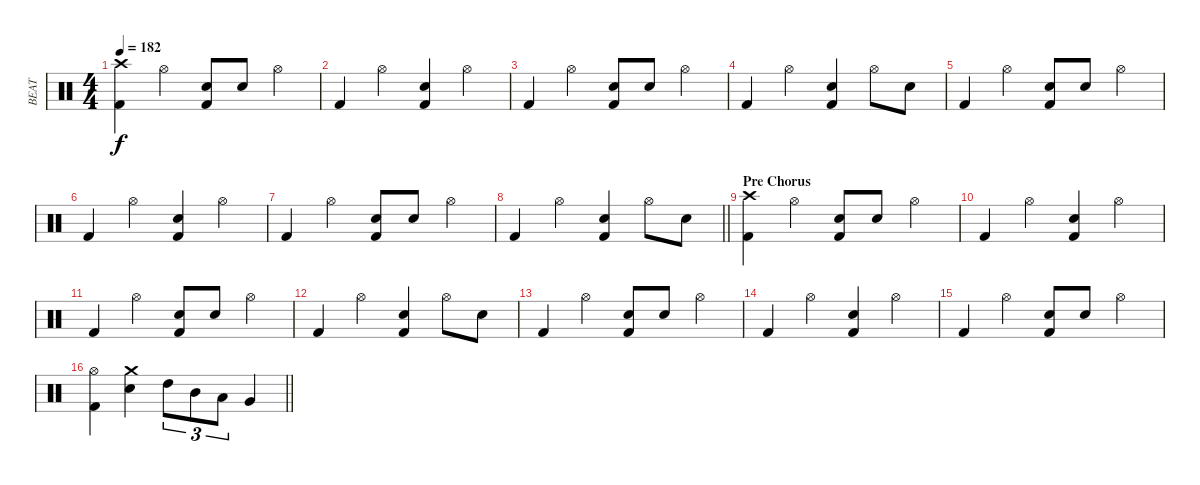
\track ("BEAT" "BEAT") {instrument percussion}
\staff {score}
\articulation defaults
\ts (4 4)
\tempo 182
\clef neutral
\ks c
("Crash high (hit)" "Kick (hit) 2").4{dy f} "Hi-Hat (open)".4 ("Electric Snare (hit)" "Kick (hit) 2").8 "Electric Snare (hit)".8 "Hi-Hat (open)".4 |
"Kick (hit) 2".4 "Hi-Hat (open)".4 ("Electric Snare (hit)" "Kick (hit) 2").4 "Hi-Hat (open)".4 |
"Kick (hit) 2".4 "Hi-Hat (open)".4 ("Electric Snare (hit)" "Kick (hit) 2").8 "Electric Snare (hit)".8 "Hi-Hat (open)".4 |
"Kick (hit) 2".4 "Hi-Hat (open)".4 ("Electric Snare (hit)" "Kick (hit) 2").4 "Hi-Hat (open)".8 "Electric Snare (hit)".8 |
"Kick (hit) 2".4 "Hi-Hat (open)".4 ("Electric Snare (hit)" "Kick (hit) 2").8 "Electric Snare (hit)".8 "Hi-Hat (open)".4 |
"Kick (hit) 2".4 "Hi-Hat (open)".4 ("Electric Snare (hit)" "Kick (hit) 2").4 "Hi-Hat (open)".4 |
"Kick (hit) 2".4 "Hi-Hat (open)".4 ("Electric Snare (hit)" "Kick (hit) 2").8 "Electric Snare (hit)".8 "Hi-Hat (open)".4 |
\barLineRight lightlight "Kick (hit) 2".4 "Hi-Hat (open)".4
("Electric Snare (hit)" "Kick (hit) 2").4 "Hi-Hat (open)".8 "Electric Snare (hit)".8 |
\section ("" "Pre Chorus")
("Crash high (hit)" "Kick (hit) 2").4 "Hi-Hat (open)".4 ("Electric Snare (hit)" "Kick (hit) 2").8 "Electric Snare (hit)".8 "Hi-Hat (open)".4 |
"Kick (hit) 2".4 "Hi-Hat (open)".4 ("Electric Snare (hit)" "Kick (hit) 2").4 "Hi-Hat (open)".4 |
"Kick (hit) 2".4 "Hi-Hat (open)".4 ("Electric Snare (hit)" "Kick (hit) 2").8 "Electric Snare (hit)".8 "Hi-Hat (open)".4 |
"Kick (hit) 2".4 "Hi-Hat (open)".4 ("Electric Snare (hit)" "Kick (hit) 2").4 "Hi-Hat (open)".8 "Electric Snare (hit)".8 |
"Kick (hit) 2".4 "Hi-Hat (open)".4 ("Electric Snare (hit)" "Kick (hit) 2").8 "Electric Snare (hit)".8 "Hi-Hat (open)".4 |
"Kick (hit) 2".4 "Hi-Hat (open)".4 ("Electric Snare (hit)" "Kick (hit) 2").4 "Hi-Hat (open)".4 |
"Kick (hit) 2".4 "Hi-Hat (open)".4 ("Electric Snare (hit)" "Kick (hit) 2").8 "Electric Snare (hit)".8 "Hi-Hat (open)".4 |
\barLineRight lightlight
("Hi-Hat (open)" "Kick (hit) 2").4 ("Crash medium (hit)" "Electric Snare (hit)").4 "High Tom (hit)".8{tu (3 2)} "Mid Tom (hit)".8{tu (3 2)} "Low Tom (hit)".8{tu (3 2)} "Very Low Tom (hit)".4
